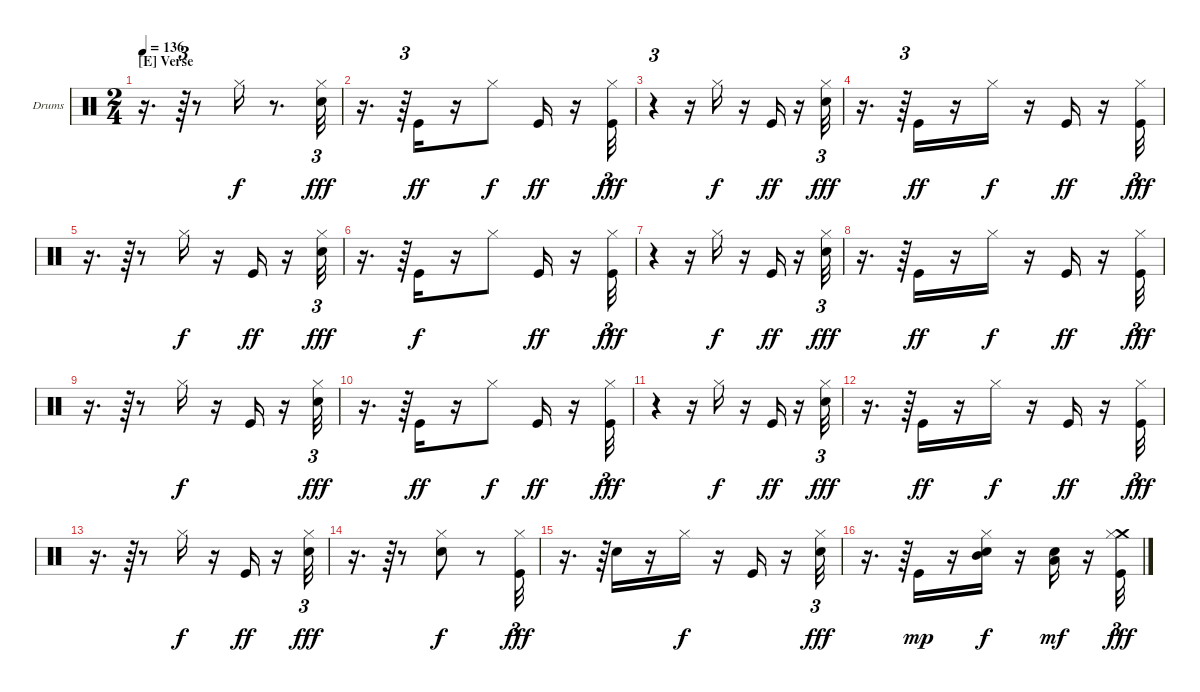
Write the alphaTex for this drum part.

\bracketExtendMode groupsimilarinstruments
\firstSystemTrackNameOrientation horizontal
\otherSystemsTrackNameOrientation horizontal
\track ("Drumkit" "Drums") {solo instrument percussion}
\staff {score}
\articulation defaults
\ts (2 4)
\section ("E" "Verse")
\tempo 136
\clef neutral
\ks c
r.16{d dy fff} r.64{tu (3 2)} r.8 "Hi-Hat (closed)".16{dy f} r.8{d} ("Hi-Hat (closed)" "Snare (hit) 2").32{tu (3 2) dy fff} |
r.16{d} r.64{tu (3 2)} "Kick (hit)".16{dy ff} r.16 "Hi-Hat (closed)".8{dy f} "Kick (hit)".16{dy ff} r.16 ("Hi-Hat (closed)" "Kick (hit)").32{tu (3 2) dy fff} |
r.4{tu (3 2)} r.16 "Hi-Hat (closed)".16{dy f} r.16 "Kick (hit)".16{dy ff} r.16 ("Hi-Hat (closed)" "Snare (hit) 2").32{tu (3 2) dy fff} |
r.16{d} r.64{tu (3 2)} "Kick (hit)".16{dy ff} r.16 "Hi-Hat (closed)".16{dy f} r.16 "Kick (hit)".16{dy ff} r.16 ("Hi-Hat (closed)" "Kick (hit)").32{tu (3 2) dy fff} |
r.16{d} r.64{tu (3 2)} r.8 "Hi-Hat (closed)".16{dy f} r.16 "Kick (hit)".16{dy ff} r.16 ("Hi-Hat (closed)" "Snare (hit) 2").32{tu (3 2) dy fff} |
r.16{d} r.64{tu (3 2)} "Kick (hit)".16{dy f} r.16 "Hi-Hat (closed)".8 "Kick (hit)".16{dy ff} r.16 ("Hi-Hat (closed)" "Kick (hit)").32{tu (3 2) dy fff} |
r.4{tu (3 2)} r.16 "Hi-Hat (closed)".16{dy f} r.16 "Kick (hit)".16{dy ff} r.16 ("Hi-Hat (closed)" "Snare (hit) 2").32{tu (3 2) dy fff} |
r.16{d} r.64{tu (3 2)} "Kick (hit)".16{dy ff} r.16 "Hi-Hat (closed)".16{dy f} r.16 "Kick (hit)".16{dy ff} r.16 ("Hi-Hat (closed)" "Kick (hit)").32{tu (3 2) dy fff} |
r.16{d} r.64{tu (3 2)} r.8 "Hi-Hat (closed)".16{dy f} r.16 "Kick (hit)".16 r.16 ("Hi-Hat (closed)" "Snare (hit) 2").32{tu (3 2) dy fff} |
r.16{d} r.64{tu (3 2)} "Kick (hit)".16{dy ff} r.16 "Hi-Hat (closed)".8{dy f} "Kick (hit)".16{dy ff} r.16 ("Hi-Hat (closed)" "Kick (hit)").32{tu (3 2) dy fff} |
r.4{tu (3 2)} r.16 "Hi-Hat (closed)".16{dy f} r.16 "Kick (hit)".16{dy ff} r.16 ("Hi-Hat (closed)" "Snare (hit) 2").32{tu (3 2) dy fff} |
r.16{d} r.64{tu (3 2)} "Kick (hit)".16{dy ff} r.16 "Hi-Hat (closed)".16{dy f} r.16 "Kick (hit)".16{dy ff} r.16 ("Hi-Hat (closed)" "Kick (hit)").32{tu (3 2) dy fff} |
r.16{d} r.64{tu (3 2)} r.8 "Hi-Hat (closed)".16{dy f} r.16 "Kick (hit)".16{dy ff} r.16 ("Hi-Hat (closed)" "Snare (hit) 2").32{tu (3 2) dy fff} |
r.16{d} r.64{tu (3 2)} r.8 ("Hi-Hat (closed)" "Snare (hit) 2").8{dy f} r.8 ("Hi-Hat (closed)" "Kick (hit)").32{tu (3 2) dy fff} |
r.16{d} r.64{tu (3 2)} "Snare (hit) 2".16 r.16 "Hi-Hat (closed)".16{dy f} r.16 "Kick (hit)".16 r.16 ("Hi-Hat (closed)" "Snare (hit) 2").32{tu (3 2) dy fff} |
r.16{d} r.64{tu (3 2)} "Kick (hit)".16{dy mp} r.16 ("Hi-Hat (closed)" "Snare (hit) 2" "Mid Tom (hit)").16{dy f} r.16 ("Low Tom (hit)" "Snare (hit) 2").16{dy mf} r.16 ("Crash medium (hit)" "Hi-Hat (closed)" "Kick (hit)").32{tu (3 2) dy fff}
